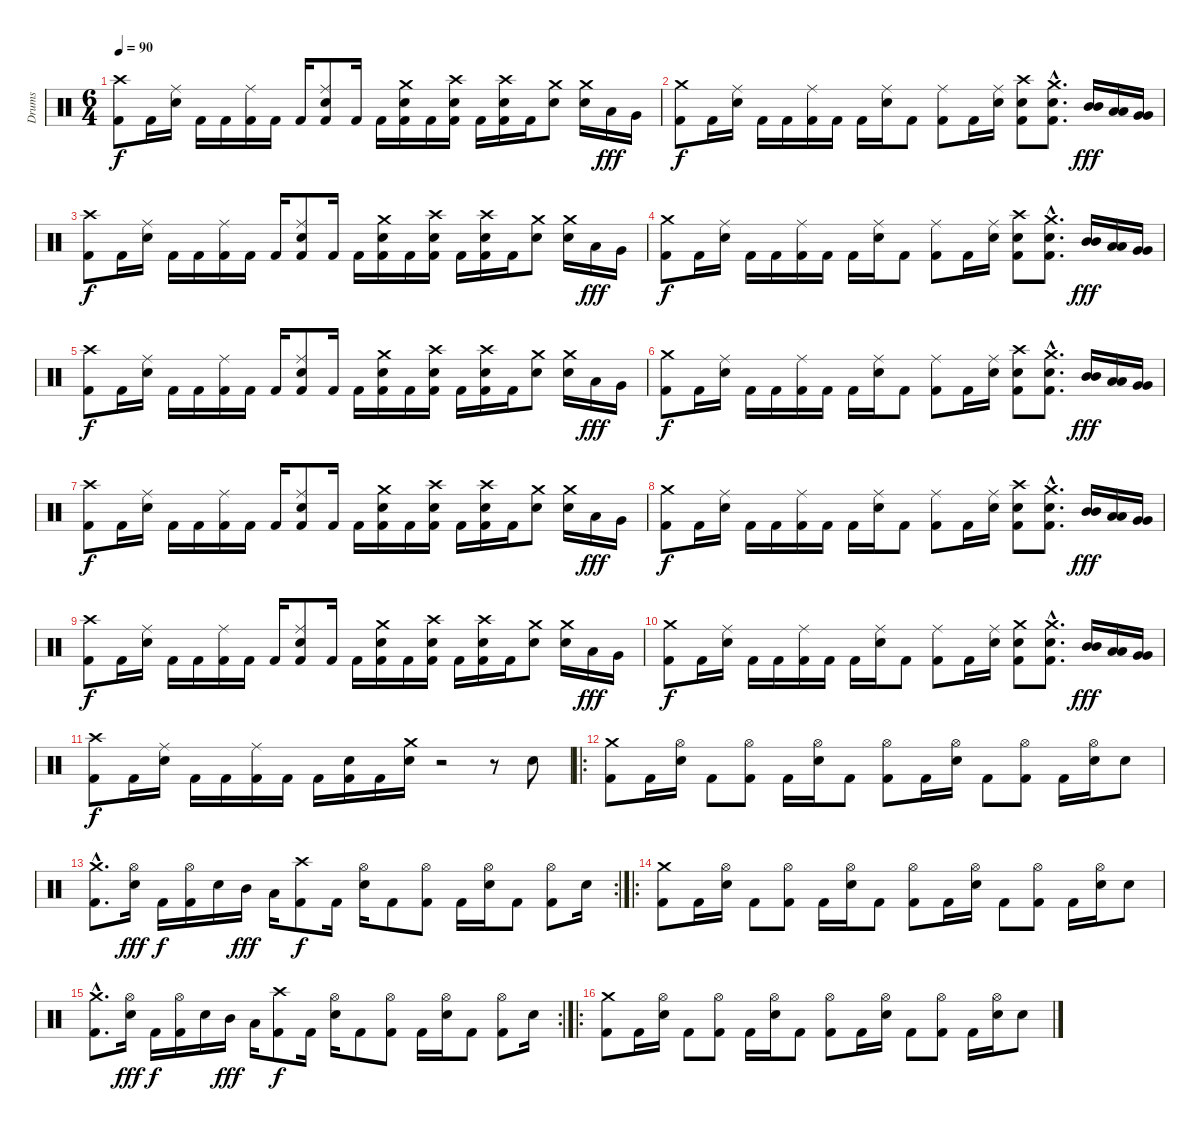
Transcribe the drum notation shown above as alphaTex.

\track ("Drums" "Drums") {instrument percussion}
\staff {score}
\articulation defaults
\ts (6 4)
\tempo 90
\clef neutral
\ks c
("Crash high (hit)" "Kick (hit) 2").8{dy f} "Kick (hit) 2".16 ("Ride (middle)" "Electric Snare (hit)").16 "Kick (hit) 2".16 "Kick (hit) 2".16 ("Ride (middle)" "Kick (hit) 2").16 "Kick (hit) 2".16 "Kick (hit) 2".16 ("Ride (middle)" "Electric Snare (hit)" "Kick (hit) 2").8 "Kick (hit) 2".16 "Kick (hit) 2".16 ("Crash medium (hit)" "Electric Snare (hit)" "Kick (hit) 2").16 "Kick (hit) 2".16 ("Crash high (hit)" "Electric Snare (hit)" "Kick (hit) 2").16 "Kick (hit) 2".16 ("Crash high (hit)" "Electric Snare (hit)" "Kick (hit) 2").16 "Kick (hit) 2".16 ("Crash medium (hit)" "Electric Snare (hit)").8 ("Crash medium (hit)" "Electric Snare (hit)").16 "Low Tom (hit)".16{dy fff} "Very Low Tom (hit)".16 |
("Crash medium (hit)" "Kick (hit) 2").8{dy f} "Kick (hit) 2".16 ("Ride (middle)" "Electric Snare (hit)").16 "Kick (hit) 2".16 "Kick (hit) 2".16 ("Ride (middle)" "Kick (hit) 2").16 "Kick (hit) 2".16 "Kick (hit) 2".16 ("Ride (middle)" "Electric Snare (hit)").16 "Kick (hit) 2".8 ("Ride (middle)" "Kick (hit) 2").8 "Kick (hit) 2".16 ("Ride (middle)" "Electric Snare (hit)").16 ("Crash high (hit)" "Electric Snare (hit)" "Kick (hit) 2").8 ("Crash medium (hit)"{hac} "Electric Snare (hit)"{hac} "Kick (hit) 2"{hac}).8{d} ("Mid Tom (hit)" "Mid Tom (hit)").16{dy fff} ("Low Tom (hit)" "Low Tom (hit)").16 ("Very Low Tom (hit)" "Very Low Tom (hit)").16 |
("Crash high (hit)" "Kick (hit) 2").8{dy f} "Kick (hit) 2".16 ("Ride (middle)" "Electric Snare (hit)").16 "Kick (hit) 2".16 "Kick (hit) 2".16 ("Ride (middle)" "Kick (hit) 2").16 "Kick (hit) 2".16 "Kick (hit) 2".16 ("Ride (middle)" "Electric Snare (hit)" "Kick (hit) 2").8 "Kick (hit) 2".16 "Kick (hit) 2".16 ("Crash medium (hit)" "Electric Snare (hit)" "Kick (hit) 2").16 "Kick (hit) 2".16 ("Crash high (hit)" "Electric Snare (hit)" "Kick (hit) 2").16 "Kick (hit) 2".16 ("Crash high (hit)" "Electric Snare (hit)" "Kick (hit) 2").16 "Kick (hit) 2".16 ("Crash medium (hit)" "Electric Snare (hit)").8 ("Crash medium (hit)" "Electric Snare (hit)").16 "Low Tom (hit)".16{dy fff} "Very Low Tom (hit)".16 |
("Crash medium (hit)" "Kick (hit) 2").8{dy f} "Kick (hit) 2".16 ("Ride (middle)" "Electric Snare (hit)").16 "Kick (hit) 2".16 "Kick (hit) 2".16 ("Ride (middle)" "Kick (hit) 2").16 "Kick (hit) 2".16 "Kick (hit) 2".16 ("Ride (middle)" "Electric Snare (hit)").16 "Kick (hit) 2".8 ("Ride (middle)" "Kick (hit) 2").8 "Kick (hit) 2".16 ("Ride (middle)" "Electric Snare (hit)").16 ("Crash high (hit)" "Electric Snare (hit)" "Kick (hit) 2").8 ("Crash medium (hit)"{hac} "Electric Snare (hit)"{hac} "Kick (hit) 2"{hac}).8{d} ("Mid Tom (hit)" "Mid Tom (hit)").16{dy fff} ("Low Tom (hit)" "Low Tom (hit)").16 ("Very Low Tom (hit)" "Very Low Tom (hit)").16 |
("Crash high (hit)" "Kick (hit) 2").8{dy f} "Kick (hit) 2".16 ("Ride (middle)" "Electric Snare (hit)").16 "Kick (hit) 2".16 "Kick (hit) 2".16 ("Ride (middle)" "Kick (hit) 2").16 "Kick (hit) 2".16 "Kick (hit) 2".16 ("Ride (middle)" "Electric Snare (hit)" "Kick (hit) 2").8 "Kick (hit) 2".16 "Kick (hit) 2".16 ("Crash medium (hit)" "Electric Snare (hit)" "Kick (hit) 2").16 "Kick (hit) 2".16 ("Crash high (hit)" "Electric Snare (hit)" "Kick (hit) 2").16 "Kick (hit) 2".16 ("Crash high (hit)" "Electric Snare (hit)" "Kick (hit) 2").16 "Kick (hit) 2".16 ("Crash medium (hit)" "Electric Snare (hit)").8 ("Crash medium (hit)" "Electric Snare (hit)").16 "Low Tom (hit)".16{dy fff} "Very Low Tom (hit)".16 |
("Crash medium (hit)" "Kick (hit) 2").8{dy f} "Kick (hit) 2".16 ("Ride (middle)" "Electric Snare (hit)").16 "Kick (hit) 2".16 "Kick (hit) 2".16 ("Ride (middle)" "Kick (hit) 2").16 "Kick (hit) 2".16 "Kick (hit) 2".16 ("Ride (middle)" "Electric Snare (hit)").16 "Kick (hit) 2".8 ("Ride (middle)" "Kick (hit) 2").8 "Kick (hit) 2".16 ("Ride (middle)" "Electric Snare (hit)").16 ("Crash high (hit)" "Electric Snare (hit)" "Kick (hit) 2").8 ("Crash medium (hit)"{hac} "Electric Snare (hit)"{hac} "Kick (hit) 2"{hac}).8{d} ("Mid Tom (hit)" "Mid Tom (hit)").16{dy fff} ("Low Tom (hit)" "Low Tom (hit)").16 ("Very Low Tom (hit)" "Very Low Tom (hit)").16 |
("Crash high (hit)" "Kick (hit) 2").8{dy f} "Kick (hit) 2".16 ("Ride (middle)" "Electric Snare (hit)").16 "Kick (hit) 2".16 "Kick (hit) 2".16 ("Ride (middle)" "Kick (hit) 2").16 "Kick (hit) 2".16 "Kick (hit) 2".16 ("Ride (middle)" "Electric Snare (hit)" "Kick (hit) 2").8 "Kick (hit) 2".16 "Kick (hit) 2".16 ("Crash medium (hit)" "Electric Snare (hit)" "Kick (hit) 2").16 "Kick (hit) 2".16 ("Crash high (hit)" "Electric Snare (hit)" "Kick (hit) 2").16 "Kick (hit) 2".16 ("Crash high (hit)" "Electric Snare (hit)" "Kick (hit) 2").16 "Kick (hit) 2".16 ("Crash medium (hit)" "Electric Snare (hit)").8 ("Crash medium (hit)" "Electric Snare (hit)").16 "Low Tom (hit)".16{dy fff} "Very Low Tom (hit)".16 |
("Crash medium (hit)" "Kick (hit) 2").8{dy f} "Kick (hit) 2".16 ("Ride (middle)" "Electric Snare (hit)").16 "Kick (hit) 2".16 "Kick (hit) 2".16 ("Ride (middle)" "Kick (hit) 2").16 "Kick (hit) 2".16 "Kick (hit) 2".16 ("Ride (middle)" "Electric Snare (hit)").16 "Kick (hit) 2".8 ("Ride (middle)" "Kick (hit) 2").8 "Kick (hit) 2".16 ("Ride (middle)" "Electric Snare (hit)").16 ("Crash high (hit)" "Electric Snare (hit)" "Kick (hit) 2").8 ("Crash medium (hit)"{hac} "Electric Snare (hit)"{hac} "Kick (hit) 2"{hac}).8{d} ("Mid Tom (hit)" "Mid Tom (hit)").16{dy fff} ("Low Tom (hit)" "Low Tom (hit)").16 ("Very Low Tom (hit)" "Very Low Tom (hit)").16 |
("Crash high (hit)" "Kick (hit) 2").8{dy f} "Kick (hit) 2".16 ("Ride (middle)" "Electric Snare (hit)").16 "Kick (hit) 2".16 "Kick (hit) 2".16 ("Ride (middle)" "Kick (hit) 2").16 "Kick (hit) 2".16 "Kick (hit) 2".16 ("Ride (middle)" "Electric Snare (hit)" "Kick (hit) 2").8 "Kick (hit) 2".16 "Kick (hit) 2".16 ("Crash medium (hit)" "Electric Snare (hit)" "Kick (hit) 2").16 "Kick (hit) 2".16 ("Crash high (hit)" "Electric Snare (hit)" "Kick (hit) 2").16 "Kick (hit) 2".16 ("Crash high (hit)" "Electric Snare (hit)" "Kick (hit) 2").16 "Kick (hit) 2".16 ("Crash medium (hit)" "Electric Snare (hit)").8 ("Crash medium (hit)" "Electric Snare (hit)").16 "Low Tom (hit)".16{dy fff} "Very Low Tom (hit)".16 |
("Crash medium (hit)" "Kick (hit) 2").8{dy f} "Kick (hit) 2".16 ("Ride (middle)" "Electric Snare (hit)").16 "Kick (hit) 2".16 "Kick (hit) 2".16 ("Ride (middle)" "Kick (hit) 2").16 "Kick (hit) 2".16 "Kick (hit) 2".16 ("Ride (middle)" "Electric Snare (hit)").16 "Kick (hit) 2".8 ("Ride (middle)" "Kick (hit) 2").8 "Kick (hit) 2".16 ("Ride (middle)" "Electric Snare (hit)").16 ("Crash medium (hit)" "Electric Snare (hit)" "Kick (hit) 2").8 ("Crash medium (hit)"{hac} "Electric Snare (hit)"{hac} "Kick (hit) 2"{hac}).8{d} ("Mid Tom (hit)" "Mid Tom (hit)").16{dy fff} ("Low Tom (hit)" "Low Tom (hit)").16 ("Very Low Tom (hit)" "Very Low Tom (hit)").16 |
("Crash high (hit)" "Kick (hit) 2").8{dy f} "Kick (hit) 2".16 ("Ride (middle)" "Electric Snare (hit)").16 "Kick (hit) 2".16 "Kick (hit) 2".16 ("Ride (middle)" "Kick (hit) 2").16 "Kick (hit) 2".16 "Kick (hit) 2".16 ("Electric Snare (hit)" "Kick (hit) 2").16 "Kick (hit) 2".16 ("Crash medium (hit)" "Electric Snare (hit)").16 r.2 r.8 "Electric Snare (hit)".8 |
\ro
("Crash medium (hit)" "Kick (hit) 2").8 "Kick (hit) 2".16 ("Hi-Hat (open)" "Electric Snare (hit)").16 "Kick (hit) 2".8 ("Hi-Hat (open)" "Kick (hit) 2").8 "Kick (hit) 2".16 ("Hi-Hat (open)" "Electric Snare (hit)").16 "Kick (hit) 2".8 ("Hi-Hat (open)" "Kick (hit) 2").8 "Kick (hit) 2".16 ("Hi-Hat (open)" "Electric Snare (hit)").16 "Kick (hit) 2".8 ("Hi-Hat (open)" "Kick (hit) 2").8 "Kick (hit) 2".16 ("Hi-Hat (open)" "Electric Snare (hit)").16 "Electric Snare (hit)".8 |
\rc 2
("Crash medium (hit)"{hac} "Kick (hit) 2"{hac}).8{d} ("Hi-Hat (open)" "Electric Snare (hit)").16{dy fff} "Kick (hit) 2".16{dy f} ("Hi-Hat (open)" "Kick (hit) 2").16 "Electric Snare (hit)".16 "Mid Tom (hit)".16{dy fff} "Low Tom (hit)".16 ("Crash high (hit)" "Kick (hit) 2").8{dy f} "Kick (hit) 2".16 ("Hi-Hat (open)" "Electric Snare (hit)").16 "Kick (hit) 2".8 ("Hi-Hat (open)" "Kick (hit) 2").8 "Kick (hit) 2".16 ("Hi-Hat (open)" "Electric Snare (hit)").16 "Kick (hit) 2".8 ("Hi-Hat (open)" "Kick (hit) 2").8 "Electric Snare (hit)".16 |
\ro
("Crash medium (hit)" "Kick (hit) 2").8 "Kick (hit) 2".16 ("Hi-Hat (open)" "Electric Snare (hit)").16 "Kick (hit) 2".8 ("Hi-Hat (open)" "Kick (hit) 2").8 "Kick (hit) 2".16 ("Hi-Hat (open)" "Electric Snare (hit)").16 "Kick (hit) 2".8 ("Hi-Hat (open)" "Kick (hit) 2").8 "Kick (hit) 2".16 ("Hi-Hat (open)" "Electric Snare (hit)").16 "Kick (hit) 2".8 ("Hi-Hat (open)" "Kick (hit) 2").8 "Kick (hit) 2".16 ("Hi-Hat (open)" "Electric Snare (hit)").16 "Electric Snare (hit)".8 |
\rc 2
("Crash medium (hit)"{hac} "Kick (hit) 2"{hac}).8{d} ("Hi-Hat (open)" "Electric Snare (hit)").16{dy fff} "Kick (hit) 2".16{dy f} ("Hi-Hat (open)" "Kick (hit) 2").16 "Electric Snare (hit)".16 "Mid Tom (hit)".16{dy fff} "Low Tom (hit)".16 ("Crash high (hit)" "Kick (hit) 2").8{dy f} "Kick (hit) 2".16 ("Hi-Hat (open)" "Electric Snare (hit)").16 "Kick (hit) 2".8 ("Hi-Hat (open)" "Kick (hit) 2").8 "Kick (hit) 2".16 ("Hi-Hat (open)" "Electric Snare (hit)").16 "Kick (hit) 2".8 ("Hi-Hat (open)" "Kick (hit) 2").8 "Electric Snare (hit)".16 |
\ro
("Crash medium (hit)" "Kick (hit) 2").8 "Kick (hit) 2".16 ("Hi-Hat (open)" "Electric Snare (hit)").16 "Kick (hit) 2".8 ("Hi-Hat (open)" "Kick (hit) 2").8 "Kick (hit) 2".16 ("Hi-Hat (open)" "Electric Snare (hit)").16 "Kick (hit) 2".8 ("Hi-Hat (open)" "Kick (hit) 2").8 "Kick (hit) 2".16 ("Hi-Hat (open)" "Electric Snare (hit)").16 "Kick (hit) 2".8 ("Hi-Hat (open)" "Kick (hit) 2").8 "Kick (hit) 2".16 ("Hi-Hat (open)" "Electric Snare (hit)").16 "Electric Snare (hit)".8
